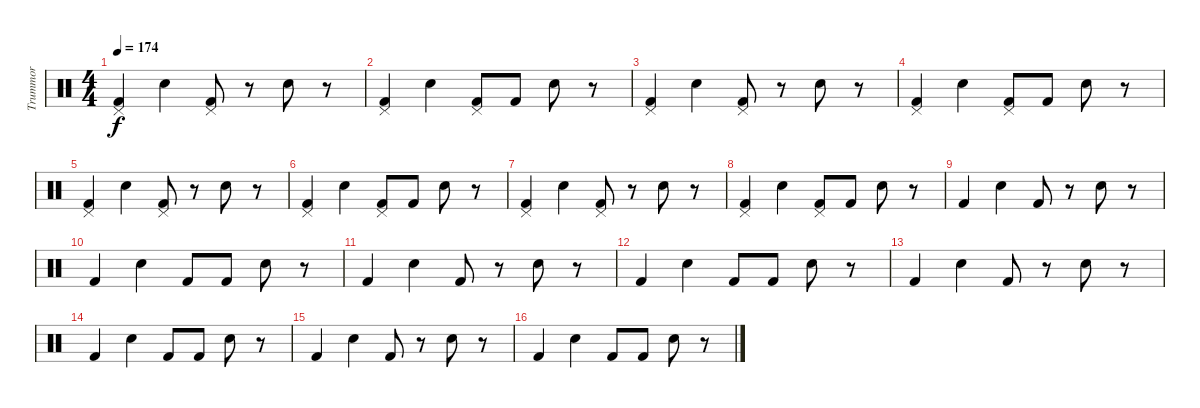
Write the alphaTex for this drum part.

\track ("Trummor" "Trummor") {instrument percussion}
\staff {score}
\articulation defaults
\ts (4 4)
\tempo 174
\clef neutral
\ks c
("Pedal Hi-Hat (hit)" "Kick (hit) 2").4{dy f} "Snare (hit) 2".4 ("Pedal Hi-Hat (hit)" "Kick (hit) 2").8 r.8 "Snare (hit) 2".8 r.8 |
("Pedal Hi-Hat (hit)" "Kick (hit) 2").4 "Snare (hit) 2".4 ("Pedal Hi-Hat (hit)" "Kick (hit) 2").8 "Kick (hit) 2".8 "Snare (hit) 2".8 r.8 |
("Pedal Hi-Hat (hit)" "Kick (hit) 2").4 "Snare (hit) 2".4 ("Pedal Hi-Hat (hit)" "Kick (hit) 2").8 r.8 "Snare (hit) 2".8 r.8 |
("Pedal Hi-Hat (hit)" "Kick (hit) 2").4 "Snare (hit) 2".4 ("Pedal Hi-Hat (hit)" "Kick (hit) 2").8 "Kick (hit) 2".8 "Snare (hit) 2".8 r.8 |
("Pedal Hi-Hat (hit)" "Kick (hit) 2").4 "Snare (hit) 2".4 ("Pedal Hi-Hat (hit)" "Kick (hit) 2").8 r.8 "Snare (hit) 2".8 r.8 |
("Pedal Hi-Hat (hit)" "Kick (hit) 2").4 "Snare (hit) 2".4 ("Pedal Hi-Hat (hit)" "Kick (hit) 2").8 "Kick (hit) 2".8 "Snare (hit) 2".8 r.8 |
("Pedal Hi-Hat (hit)" "Kick (hit) 2").4 "Snare (hit) 2".4 ("Pedal Hi-Hat (hit)" "Kick (hit) 2").8 r.8 "Snare (hit) 2".8 r.8 |
("Pedal Hi-Hat (hit)" "Kick (hit) 2").4 "Snare (hit) 2".4 ("Pedal Hi-Hat (hit)" "Kick (hit) 2").8 "Kick (hit) 2".8 "Snare (hit) 2".8 r.8 |
"Kick (hit) 2".4 "Snare (hit) 2".4 "Kick (hit) 2".8 r.8 "Snare (hit) 2".8 r.8 |
"Kick (hit) 2".4 "Snare (hit) 2".4 "Kick (hit) 2".8 "Kick (hit) 2".8 "Snare (hit) 2".8 r.8 |
"Kick (hit) 2".4 "Snare (hit) 2".4 "Kick (hit) 2".8 r.8 "Snare (hit) 2".8 r.8 |
"Kick (hit) 2".4 "Snare (hit) 2".4 "Kick (hit) 2".8 "Kick (hit) 2".8 "Snare (hit) 2".8 r.8 |
"Kick (hit) 2".4 "Snare (hit) 2".4 "Kick (hit) 2".8 r.8 "Snare (hit) 2".8 r.8 |
"Kick (hit) 2".4 "Snare (hit) 2".4 "Kick (hit) 2".8 "Kick (hit) 2".8 "Snare (hit) 2".8 r.8 |
"Kick (hit) 2".4 "Snare (hit) 2".4 "Kick (hit) 2".8 r.8 "Snare (hit) 2".8 r.8 |
"Kick (hit) 2".4 "Snare (hit) 2".4 "Kick (hit) 2".8 "Kick (hit) 2".8 "Snare (hit) 2".8 r.8
